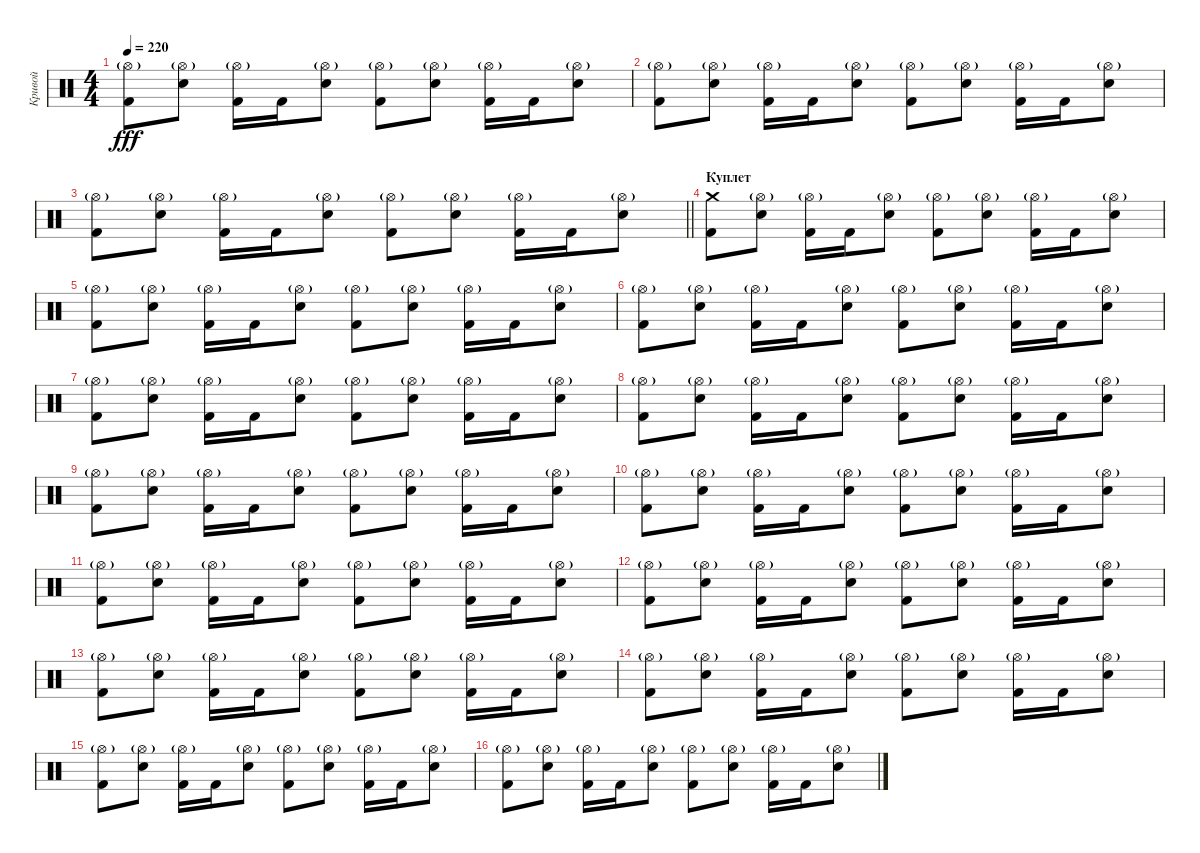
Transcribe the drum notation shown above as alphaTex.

\track ("Кривой" "Кривой") {instrument percussion}
\staff {score}
\articulation defaults
\ts (4 4)
\tempo 220
\clef neutral
\ks c
("Hi-Hat (open)"{g} "Kick (hit) 2").8{dy fff} ("Hi-Hat (open)"{g} "Electric Snare (hit)").8 ("Hi-Hat (open)"{g} "Kick (hit) 2").16 "Kick (hit) 2".16 ("Hi-Hat (open)"{g} "Electric Snare (hit)").8 ("Hi-Hat (open)"{g} "Kick (hit) 2").8 ("Hi-Hat (open)"{g} "Electric Snare (hit)").8 ("Hi-Hat (open)"{g} "Kick (hit) 2").16 "Kick (hit) 2".16 ("Hi-Hat (open)"{g} "Electric Snare (hit)").8 |
("Hi-Hat (open)"{g} "Kick (hit) 2").8 ("Hi-Hat (open)"{g} "Electric Snare (hit)").8 ("Hi-Hat (open)"{g} "Kick (hit) 2").16 "Kick (hit) 2".16 ("Hi-Hat (open)"{g} "Electric Snare (hit)").8 ("Hi-Hat (open)"{g} "Kick (hit) 2").8 ("Hi-Hat (open)"{g} "Electric Snare (hit)").8 ("Hi-Hat (open)"{g} "Kick (hit) 2").16 "Kick (hit) 2".16 ("Hi-Hat (open)"{g} "Electric Snare (hit)").8 |
\barLineRight lightlight
("Hi-Hat (open)"{g} "Kick (hit) 2").8 ("Hi-Hat (open)"{g} "Electric Snare (hit)").8 ("Hi-Hat (open)"{g} "Kick (hit) 2").16 "Kick (hit) 2".16 ("Hi-Hat (open)"{g} "Electric Snare (hit)").8 ("Hi-Hat (open)"{g} "Kick (hit) 2").8 ("Hi-Hat (open)"{g} "Electric Snare (hit)").8 ("Hi-Hat (open)"{g} "Kick (hit) 2").16 "Kick (hit) 2".16 ("Hi-Hat (open)"{g} "Electric Snare (hit)").8 |
\section ("" "Куплет")
("Crash medium (hit)" "Kick (hit) 2").8 ("Hi-Hat (open)"{g} "Electric Snare (hit)").8 ("Hi-Hat (open)"{g} "Kick (hit) 2").16 "Kick (hit) 2".16 ("Hi-Hat (open)"{g} "Electric Snare (hit)").8 ("Hi-Hat (open)"{g} "Kick (hit) 2").8 ("Hi-Hat (open)"{g} "Electric Snare (hit)").8 ("Hi-Hat (open)"{g} "Kick (hit) 2").16 "Kick (hit) 2".16 ("Hi-Hat (open)"{g} "Electric Snare (hit)").8 |
("Hi-Hat (open)"{g} "Kick (hit) 2").8 ("Hi-Hat (open)"{g} "Electric Snare (hit)").8 ("Hi-Hat (open)"{g} "Kick (hit) 2").16 "Kick (hit) 2".16 ("Hi-Hat (open)"{g} "Electric Snare (hit)").8 ("Hi-Hat (open)"{g} "Kick (hit) 2").8 ("Hi-Hat (open)"{g} "Electric Snare (hit)").8 ("Hi-Hat (open)"{g} "Kick (hit) 2").16 "Kick (hit) 2".16 ("Hi-Hat (open)"{g} "Electric Snare (hit)").8 |
("Hi-Hat (open)"{g} "Kick (hit) 2").8 ("Hi-Hat (open)"{g} "Electric Snare (hit)").8 ("Hi-Hat (open)"{g} "Kick (hit) 2").16 "Kick (hit) 2".16 ("Hi-Hat (open)"{g} "Electric Snare (hit)").8 ("Hi-Hat (open)"{g} "Kick (hit) 2").8 ("Hi-Hat (open)"{g} "Electric Snare (hit)").8 ("Hi-Hat (open)"{g} "Kick (hit) 2").16 "Kick (hit) 2".16 ("Hi-Hat (open)"{g} "Electric Snare (hit)").8 |
("Hi-Hat (open)"{g} "Kick (hit) 2").8 ("Hi-Hat (open)"{g} "Electric Snare (hit)").8 ("Hi-Hat (open)"{g} "Kick (hit) 2").16 "Kick (hit) 2".16 ("Hi-Hat (open)"{g} "Electric Snare (hit)").8 ("Hi-Hat (open)"{g} "Kick (hit) 2").8 ("Hi-Hat (open)"{g} "Electric Snare (hit)").8 ("Hi-Hat (open)"{g} "Kick (hit) 2").16 "Kick (hit) 2".16 ("Hi-Hat (open)"{g} "Electric Snare (hit)").8 |
("Hi-Hat (open)"{g} "Kick (hit) 2").8 ("Hi-Hat (open)"{g} "Electric Snare (hit)").8 ("Hi-Hat (open)"{g} "Kick (hit) 2").16 "Kick (hit) 2".16 ("Hi-Hat (open)"{g} "Electric Snare (hit)").8 ("Hi-Hat (open)"{g} "Kick (hit) 2").8 ("Hi-Hat (open)"{g} "Electric Snare (hit)").8 ("Hi-Hat (open)"{g} "Kick (hit) 2").16 "Kick (hit) 2".16 ("Hi-Hat (open)"{g} "Electric Snare (hit)").8 |
("Hi-Hat (open)"{g} "Kick (hit) 2").8 ("Hi-Hat (open)"{g} "Electric Snare (hit)").8 ("Hi-Hat (open)"{g} "Kick (hit) 2").16 "Kick (hit) 2".16 ("Hi-Hat (open)"{g} "Electric Snare (hit)").8 ("Hi-Hat (open)"{g} "Kick (hit) 2").8 ("Hi-Hat (open)"{g} "Electric Snare (hit)").8 ("Hi-Hat (open)"{g} "Kick (hit) 2").16 "Kick (hit) 2".16 ("Hi-Hat (open)"{g} "Electric Snare (hit)").8 |
("Hi-Hat (open)"{g} "Kick (hit) 2").8 ("Hi-Hat (open)"{g} "Electric Snare (hit)").8 ("Hi-Hat (open)"{g} "Kick (hit) 2").16 "Kick (hit) 2".16 ("Hi-Hat (open)"{g} "Electric Snare (hit)").8 ("Hi-Hat (open)"{g} "Kick (hit) 2").8 ("Hi-Hat (open)"{g} "Electric Snare (hit)").8 ("Hi-Hat (open)"{g} "Kick (hit) 2").16 "Kick (hit) 2".16 ("Hi-Hat (open)"{g} "Electric Snare (hit)").8 |
("Hi-Hat (open)"{g} "Kick (hit) 2").8 ("Hi-Hat (open)"{g} "Electric Snare (hit)").8 ("Hi-Hat (open)"{g} "Kick (hit) 2").16 "Kick (hit) 2".16 ("Hi-Hat (open)"{g} "Electric Snare (hit)").8 ("Hi-Hat (open)"{g} "Kick (hit) 2").8 ("Hi-Hat (open)"{g} "Electric Snare (hit)").8 ("Hi-Hat (open)"{g} "Kick (hit) 2").16 "Kick (hit) 2".16 ("Hi-Hat (open)"{g} "Electric Snare (hit)").8 |
("Hi-Hat (open)"{g} "Kick (hit) 2").8 ("Hi-Hat (open)"{g} "Electric Snare (hit)").8 ("Hi-Hat (open)"{g} "Kick (hit) 2").16 "Kick (hit) 2".16 ("Hi-Hat (open)"{g} "Electric Snare (hit)").8 ("Hi-Hat (open)"{g} "Kick (hit) 2").8 ("Hi-Hat (open)"{g} "Electric Snare (hit)").8 ("Hi-Hat (open)"{g} "Kick (hit) 2").16 "Kick (hit) 2".16 ("Hi-Hat (open)"{g} "Electric Snare (hit)").8 |
("Hi-Hat (open)"{g} "Kick (hit) 2").8 ("Hi-Hat (open)"{g} "Electric Snare (hit)").8 ("Hi-Hat (open)"{g} "Kick (hit) 2").16 "Kick (hit) 2".16 ("Hi-Hat (open)"{g} "Electric Snare (hit)").8 ("Hi-Hat (open)"{g} "Kick (hit) 2").8 ("Hi-Hat (open)"{g} "Electric Snare (hit)").8 ("Hi-Hat (open)"{g} "Kick (hit) 2").16 "Kick (hit) 2".16 ("Hi-Hat (open)"{g} "Electric Snare (hit)").8 |
("Hi-Hat (open)"{g} "Kick (hit) 2").8 ("Hi-Hat (open)"{g} "Electric Snare (hit)").8 ("Hi-Hat (open)"{g} "Kick (hit) 2").16 "Kick (hit) 2".16 ("Hi-Hat (open)"{g} "Electric Snare (hit)").8 ("Hi-Hat (open)"{g} "Kick (hit) 2").8 ("Hi-Hat (open)"{g} "Electric Snare (hit)").8 ("Hi-Hat (open)"{g} "Kick (hit) 2").16 "Kick (hit) 2".16 ("Hi-Hat (open)"{g} "Electric Snare (hit)").8 |
("Hi-Hat (open)"{g} "Kick (hit) 2").8 ("Hi-Hat (open)"{g} "Electric Snare (hit)").8 ("Hi-Hat (open)"{g} "Kick (hit) 2").16 "Kick (hit) 2".16 ("Hi-Hat (open)"{g} "Electric Snare (hit)").8 ("Hi-Hat (open)"{g} "Kick (hit) 2").8 ("Hi-Hat (open)"{g} "Electric Snare (hit)").8 ("Hi-Hat (open)"{g} "Kick (hit) 2").16 "Kick (hit) 2".16 ("Hi-Hat (open)"{g} "Electric Snare (hit)").8 |
("Hi-Hat (open)"{g} "Kick (hit) 2").8 ("Hi-Hat (open)"{g} "Electric Snare (hit)").8 ("Hi-Hat (open)"{g} "Kick (hit) 2").16 "Kick (hit) 2".16 ("Hi-Hat (open)"{g} "Electric Snare (hit)").8 ("Hi-Hat (open)"{g} "Kick (hit) 2").8 ("Hi-Hat (open)"{g} "Electric Snare (hit)").8 ("Hi-Hat (open)"{g} "Kick (hit) 2").16 "Kick (hit) 2".16 ("Hi-Hat (open)"{g} "Electric Snare (hit)").8
